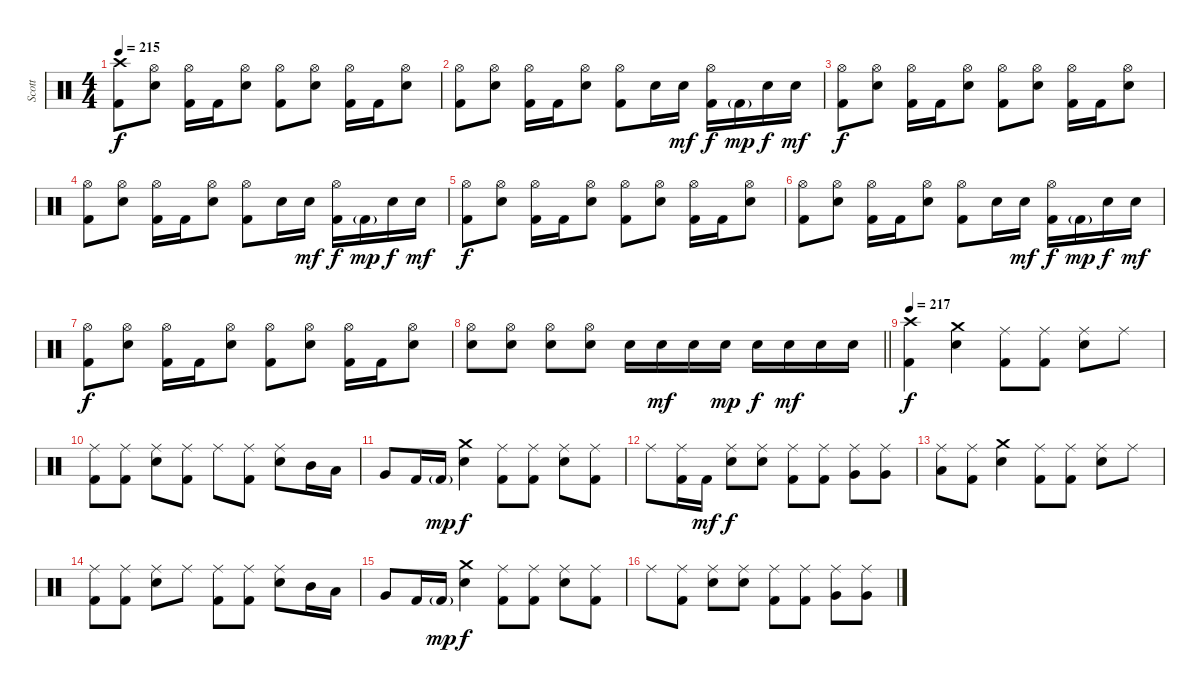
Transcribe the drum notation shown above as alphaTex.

\track ("Scott" "Scott") {instrument percussion}
\staff {score}
\articulation defaults
\ts (4 4)
\tempo 215
\clef neutral
\ks c
("Crash high (hit)" "Kick (hit) 2").8{dy f} ("Hi-Hat (open)" "Electric Snare (hit)").8 ("Hi-Hat (open)" "Kick (hit) 2").16 "Kick (hit) 2".16 ("Hi-Hat (open)" "Electric Snare (hit)").8 ("Hi-Hat (open)" "Kick (hit) 2").8 ("Hi-Hat (open)" "Electric Snare (hit)").8 ("Hi-Hat (open)" "Kick (hit) 2").16 "Kick (hit) 2".16 ("Hi-Hat (open)" "Electric Snare (hit)").8 |
("Hi-Hat (open)" "Kick (hit) 2").8 ("Hi-Hat (open)" "Electric Snare (hit)").8 ("Hi-Hat (open)" "Kick (hit) 2").16 "Kick (hit) 2".16 ("Hi-Hat (open)" "Electric Snare (hit)").8 ("Hi-Hat (open)" "Kick (hit) 2").8 "Electric Snare (hit)".16 "Electric Snare (hit)".16{dy mf} ("Hi-Hat (open)" "Kick (hit) 2").16{dy f} "Kick (hit) 2"{g}.16{dy mp} "Electric Snare (hit)".16{dy f} "Electric Snare (hit)".16{dy mf} |
("Hi-Hat (open)" "Kick (hit) 2").8{dy f} ("Hi-Hat (open)" "Electric Snare (hit)").8 ("Hi-Hat (open)" "Kick (hit) 2").16 "Kick (hit) 2".16 ("Hi-Hat (open)" "Electric Snare (hit)").8 ("Hi-Hat (open)" "Kick (hit) 2").8 ("Hi-Hat (open)" "Electric Snare (hit)").8 ("Hi-Hat (open)" "Kick (hit) 2").16 "Kick (hit) 2".16 ("Hi-Hat (open)" "Electric Snare (hit)").8 |
("Hi-Hat (open)" "Kick (hit) 2").8 ("Hi-Hat (open)" "Electric Snare (hit)").8 ("Hi-Hat (open)" "Kick (hit) 2").16 "Kick (hit) 2".16 ("Hi-Hat (open)" "Electric Snare (hit)").8 ("Hi-Hat (open)" "Kick (hit) 2").8 "Electric Snare (hit)".16 "Electric Snare (hit)".16{dy mf} ("Hi-Hat (open)" "Kick (hit) 2").16{dy f} "Kick (hit) 2"{g}.16{dy mp} "Electric Snare (hit)".16{dy f} "Electric Snare (hit)".16{dy mf} |
("Hi-Hat (open)" "Kick (hit) 2").8{dy f} ("Hi-Hat (open)" "Electric Snare (hit)").8 ("Hi-Hat (open)" "Kick (hit) 2").16 "Kick (hit) 2".16 ("Hi-Hat (open)" "Electric Snare (hit)").8 ("Hi-Hat (open)" "Kick (hit) 2").8 ("Hi-Hat (open)" "Electric Snare (hit)").8 ("Hi-Hat (open)" "Kick (hit) 2").16 "Kick (hit) 2".16 ("Hi-Hat (open)" "Electric Snare (hit)").8 |
("Hi-Hat (open)" "Kick (hit) 2").8 ("Hi-Hat (open)" "Electric Snare (hit)").8 ("Hi-Hat (open)" "Kick (hit) 2").16 "Kick (hit) 2".16 ("Hi-Hat (open)" "Electric Snare (hit)").8 ("Hi-Hat (open)" "Kick (hit) 2").8 "Electric Snare (hit)".16 "Electric Snare (hit)".16{dy mf} ("Hi-Hat (open)" "Kick (hit) 2").16{dy f} "Kick (hit) 2"{g}.16{dy mp} "Electric Snare (hit)".16{dy f} "Electric Snare (hit)".16{dy mf} |
("Hi-Hat (open)" "Kick (hit) 2").8{dy f} ("Hi-Hat (open)" "Electric Snare (hit)").8 ("Hi-Hat (open)" "Kick (hit) 2").16 "Kick (hit) 2".16 ("Hi-Hat (open)" "Electric Snare (hit)").8 ("Hi-Hat (open)" "Kick (hit) 2").8 ("Hi-Hat (open)" "Electric Snare (hit)").8 ("Hi-Hat (open)" "Kick (hit) 2").16 "Kick (hit) 2".16 ("Hi-Hat (open)" "Electric Snare (hit)").8 |
\barLineRight lightlight
("Hi-Hat (open)" "Electric Snare (hit)").8 ("Hi-Hat (open)" "Electric Snare (hit)").8 ("Hi-Hat (open)" "Electric Snare (hit)").8 ("Hi-Hat (open)" "Electric Snare (hit)").8 "Electric Snare (hit)".16 "Electric Snare (hit)".16{dy mf} "Electric Snare (hit)".16 "Electric Snare (hit)".16{dy mp} "Electric Snare (hit)".16{dy f} "Electric Snare (hit)".16{dy mf} "Electric Snare (hit)".16 "Electric Snare (hit)".16 |
\section ("" "")
\tempo 217
("Crash high (hit)" "Kick (hit) 2").4{dy f} ("Crash medium (hit)" "Electric Snare (hit)").4 ("Ride (middle)" "Kick (hit) 2").8 ("Ride (middle)" "Kick (hit) 2").8 ("Ride (middle)" "Electric Snare (hit)").8 "Ride (middle)".8 |
("Ride (middle)" "Kick (hit) 2").8 ("Ride (middle)" "Kick (hit) 2").8 ("Ride (middle)" "Electric Snare (hit)").8 ("Ride (middle)" "Kick (hit) 2").8 "Ride (middle)".8 ("Ride (middle)" "Kick (hit) 2").8 ("Ride (middle)" "Electric Snare (hit)").8 "Mid Tom (hit)".16 "Low Tom (hit)".16 |
"Very Low Tom (hit)".8 "Kick (hit) 2".16 "Kick (hit) 2"{g}.16{dy mp} ("Crash medium (hit)" "Electric Snare (hit)").4{dy f} ("Ride (middle)" "Kick (hit) 2").8 ("Ride (middle)" "Kick (hit) 2").8 ("Ride (middle)" "Electric Snare (hit)").8 ("Ride (middle)" "Kick (hit) 2").8 |
"Ride (middle)".8 ("Ride (middle)" "Kick (hit) 2").16 "Kick (hit) 2".16{dy mf} ("Ride (middle)" "Electric Snare (hit)").8{dy f} ("Ride (middle)" "Electric Snare (hit)").8 ("Ride (middle)" "Kick (hit) 2").8 ("Ride (middle)" "Kick (hit) 2").8 ("Ride (middle)" "Very Low Tom (hit)").8 ("Ride (middle)" "Very Low Tom (hit)").8 |
("Ride (middle)" "Low Floor Tom (hit)").8 ("Ride (middle)" "Kick (hit) 2").8 ("Crash medium (hit)" "Electric Snare (hit)").4 ("Ride (middle)" "Kick (hit) 2").8 ("Ride (middle)" "Kick (hit) 2").8 ("Ride (middle)" "Electric Snare (hit)").8 "Ride (middle)".8 |
("Ride (middle)" "Kick (hit) 2").8 ("Ride (middle)" "Kick (hit) 2").8 ("Ride (middle)" "Electric Snare (hit)").8 "Ride (middle)".8 ("Ride (middle)" "Kick (hit) 2").8 ("Ride (middle)" "Kick (hit) 2").8 ("Ride (middle)" "Electric Snare (hit)").8 "Mid Tom (hit)".16 "Low Tom (hit)".16 |
"Very Low Tom (hit)".8 "Kick (hit) 2".16 "Kick (hit) 2"{g}.16{dy mp} ("Crash medium (hit)" "Electric Snare (hit)").4{dy f} ("Ride (middle)" "Kick (hit) 2").8 ("Ride (middle)" "Kick (hit) 2").8 ("Ride (middle)" "Electric Snare (hit)").8 ("Ride (middle)" "Kick (hit) 2").8 |
"Ride (middle)".8 ("Ride (middle)" "Kick (hit) 2").8 ("Ride (middle)" "Electric Snare (hit)").8 ("Ride (middle)" "Electric Snare (hit)").8 ("Ride (middle)" "Kick (hit) 2").8 ("Ride (middle)" "Kick (hit) 2").8 ("Ride (middle)" "Very Low Tom (hit)").8 ("Ride (middle)" "Very Low Tom (hit)").8
